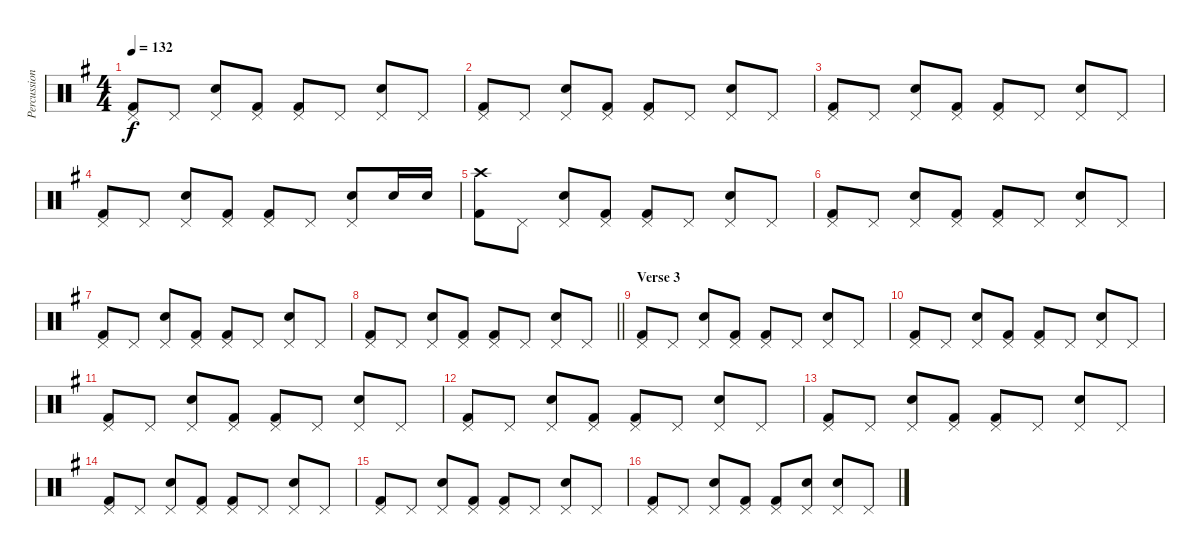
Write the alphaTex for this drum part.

\track ("Percussion" "Percussion") {instrument percussion}
\staff {score}
\articulation defaults
\ts (4 4)
\tempo 132
\clef neutral
\ks g
("Pedal Hi-Hat (hit)" "Kick (hit) 2").8{dy f} "Pedal Hi-Hat (hit)".8 ("Pedal Hi-Hat (hit)" "Snare (hit) 2").8 ("Pedal Hi-Hat (hit)" "Kick (hit) 2").8 ("Pedal Hi-Hat (hit)" "Kick (hit) 2").8 "Pedal Hi-Hat (hit)".8 ("Pedal Hi-Hat (hit)" "Snare (hit) 2").8 "Pedal Hi-Hat (hit)".8 |
("Pedal Hi-Hat (hit)" "Kick (hit) 2").8 "Pedal Hi-Hat (hit)".8 ("Pedal Hi-Hat (hit)" "Snare (hit) 2").8 ("Pedal Hi-Hat (hit)" "Kick (hit) 2").8 ("Pedal Hi-Hat (hit)" "Kick (hit) 2").8 "Pedal Hi-Hat (hit)".8 ("Pedal Hi-Hat (hit)" "Snare (hit) 2").8 "Pedal Hi-Hat (hit)".8 |
("Pedal Hi-Hat (hit)" "Kick (hit) 2").8 "Pedal Hi-Hat (hit)".8 ("Pedal Hi-Hat (hit)" "Snare (hit) 2").8 ("Pedal Hi-Hat (hit)" "Kick (hit) 2").8 ("Pedal Hi-Hat (hit)" "Kick (hit) 2").8 "Pedal Hi-Hat (hit)".8 ("Pedal Hi-Hat (hit)" "Snare (hit) 2").8 "Pedal Hi-Hat (hit)".8 |
("Pedal Hi-Hat (hit)" "Kick (hit) 2").8 "Pedal Hi-Hat (hit)".8 ("Pedal Hi-Hat (hit)" "Snare (hit) 2").8 ("Pedal Hi-Hat (hit)" "Kick (hit) 2").8 ("Pedal Hi-Hat (hit)" "Kick (hit) 2").8 "Pedal Hi-Hat (hit)".8 ("Pedal Hi-Hat (hit)" "Snare (hit) 2").8 "Electric Snare (hit)".16 "Electric Snare (hit)".16 |
("Crash high (hit)" "Kick (hit) 2").8 "Pedal Hi-Hat (hit)".8 ("Pedal Hi-Hat (hit)" "Snare (hit) 2").8 ("Pedal Hi-Hat (hit)" "Kick (hit) 2").8 ("Pedal Hi-Hat (hit)" "Kick (hit) 2").8 "Pedal Hi-Hat (hit)".8 ("Pedal Hi-Hat (hit)" "Snare (hit) 2").8 "Pedal Hi-Hat (hit)".8 |
("Pedal Hi-Hat (hit)" "Kick (hit) 2").8 "Pedal Hi-Hat (hit)".8 ("Pedal Hi-Hat (hit)" "Snare (hit) 2").8 ("Pedal Hi-Hat (hit)" "Kick (hit) 2").8 ("Pedal Hi-Hat (hit)" "Kick (hit) 2").8 "Pedal Hi-Hat (hit)".8 ("Pedal Hi-Hat (hit)" "Snare (hit) 2").8 "Pedal Hi-Hat (hit)".8 |
("Pedal Hi-Hat (hit)" "Kick (hit) 2").8 "Pedal Hi-Hat (hit)".8 ("Pedal Hi-Hat (hit)" "Snare (hit) 2").8 ("Pedal Hi-Hat (hit)" "Kick (hit) 2").8 ("Pedal Hi-Hat (hit)" "Kick (hit) 2").8 "Pedal Hi-Hat (hit)".8 ("Pedal Hi-Hat (hit)" "Snare (hit) 2").8 "Pedal Hi-Hat (hit)".8 |
\barLineRight lightlight
("Pedal Hi-Hat (hit)" "Kick (hit) 2").8 "Pedal Hi-Hat (hit)".8 ("Pedal Hi-Hat (hit)" "Snare (hit) 2").8 ("Pedal Hi-Hat (hit)" "Kick (hit) 2").8 ("Pedal Hi-Hat (hit)" "Kick (hit) 2").8 "Pedal Hi-Hat (hit)".8 ("Pedal Hi-Hat (hit)" "Snare (hit) 2").8 "Pedal Hi-Hat (hit)".8 |
\section ("" "Verse 3")
("Pedal Hi-Hat (hit)" "Kick (hit) 2").8 "Pedal Hi-Hat (hit)".8 ("Pedal Hi-Hat (hit)" "Snare (hit) 2").8 ("Pedal Hi-Hat (hit)" "Kick (hit) 2").8 ("Pedal Hi-Hat (hit)" "Kick (hit) 2").8 "Pedal Hi-Hat (hit)".8 ("Pedal Hi-Hat (hit)" "Snare (hit) 2").8 "Pedal Hi-Hat (hit)".8 |
("Pedal Hi-Hat (hit)" "Kick (hit) 2").8 "Pedal Hi-Hat (hit)".8 ("Pedal Hi-Hat (hit)" "Snare (hit) 2").8 ("Pedal Hi-Hat (hit)" "Kick (hit) 2").8 ("Pedal Hi-Hat (hit)" "Kick (hit) 2").8 "Pedal Hi-Hat (hit)".8 ("Pedal Hi-Hat (hit)" "Snare (hit) 2").8 "Pedal Hi-Hat (hit)".8 |
("Pedal Hi-Hat (hit)" "Kick (hit) 2").8 "Pedal Hi-Hat (hit)".8 ("Pedal Hi-Hat (hit)" "Snare (hit) 2").8 ("Pedal Hi-Hat (hit)" "Kick (hit) 2").8 ("Pedal Hi-Hat (hit)" "Kick (hit) 2").8 "Pedal Hi-Hat (hit)".8 ("Pedal Hi-Hat (hit)" "Snare (hit) 2").8 "Pedal Hi-Hat (hit)".8 |
("Pedal Hi-Hat (hit)" "Kick (hit) 2").8 "Pedal Hi-Hat (hit)".8 ("Pedal Hi-Hat (hit)" "Snare (hit) 2").8 ("Pedal Hi-Hat (hit)" "Kick (hit) 2").8 ("Pedal Hi-Hat (hit)" "Kick (hit) 2").8 "Pedal Hi-Hat (hit)".8 ("Pedal Hi-Hat (hit)" "Snare (hit) 2").8 "Pedal Hi-Hat (hit)".8 |
("Pedal Hi-Hat (hit)" "Kick (hit) 2").8 "Pedal Hi-Hat (hit)".8 ("Pedal Hi-Hat (hit)" "Snare (hit) 2").8 ("Pedal Hi-Hat (hit)" "Kick (hit) 2").8 ("Pedal Hi-Hat (hit)" "Kick (hit) 2").8 "Pedal Hi-Hat (hit)".8 ("Pedal Hi-Hat (hit)" "Snare (hit) 2").8 "Pedal Hi-Hat (hit)".8 |
("Pedal Hi-Hat (hit)" "Kick (hit) 2").8 "Pedal Hi-Hat (hit)".8 ("Pedal Hi-Hat (hit)" "Snare (hit) 2").8 ("Pedal Hi-Hat (hit)" "Kick (hit) 2").8 ("Pedal Hi-Hat (hit)" "Kick (hit) 2").8 "Pedal Hi-Hat (hit)".8 ("Pedal Hi-Hat (hit)" "Snare (hit) 2").8 "Pedal Hi-Hat (hit)".8 |
("Pedal Hi-Hat (hit)" "Kick (hit) 2").8 "Pedal Hi-Hat (hit)".8 ("Pedal Hi-Hat (hit)" "Snare (hit) 2").8 ("Pedal Hi-Hat (hit)" "Kick (hit) 2").8 ("Pedal Hi-Hat (hit)" "Kick (hit) 2").8 "Pedal Hi-Hat (hit)".8 ("Pedal Hi-Hat (hit)" "Snare (hit) 2").8 "Pedal Hi-Hat (hit)".8 |
("Pedal Hi-Hat (hit)" "Kick (hit) 2").8 "Pedal Hi-Hat (hit)".8 ("Pedal Hi-Hat (hit)" "Snare (hit) 2").8 ("Pedal Hi-Hat (hit)" "Kick (hit) 2").8 ("Pedal Hi-Hat (hit)" "Kick (hit) 2").8 ("Pedal Hi-Hat (hit)" "Snare (hit) 2").8 ("Pedal Hi-Hat (hit)" "Snare (hit) 2").8 "Pedal Hi-Hat (hit)".8
